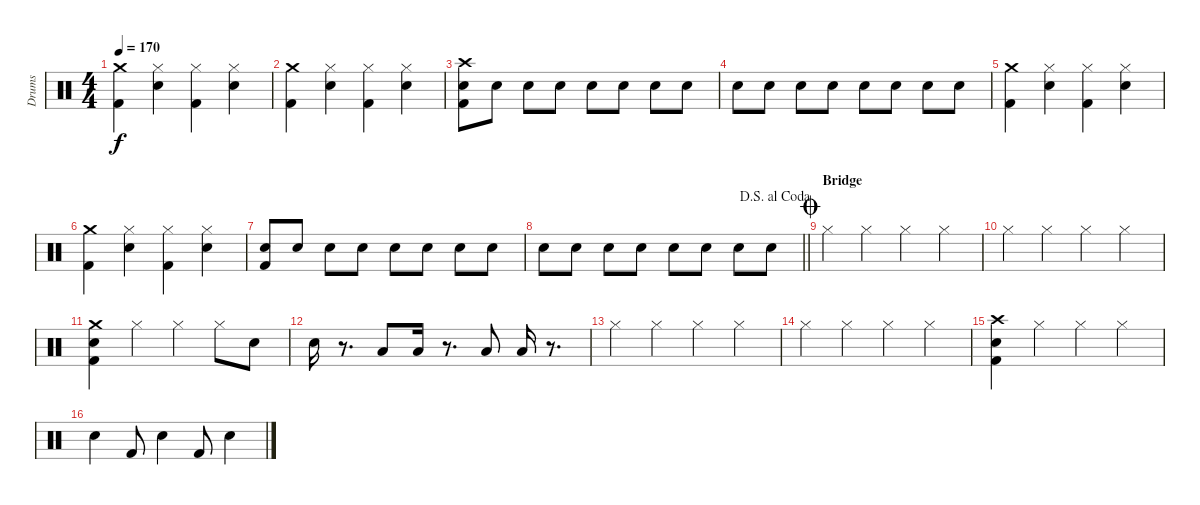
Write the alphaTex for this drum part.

\track ("Drums" "Drums") {instrument percussion}
\staff {score}
\articulation defaults
\ts (4 4)
\tempo 170
\clef neutral
\ks c
("Crash medium (hit)" "Kick (hit) 2").4{dy f} ("Hi-Hat (closed)" "Electric Snare (hit)").4 ("Hi-Hat (closed)" "Kick (hit) 2").4 ("Hi-Hat (closed)" "Electric Snare (hit)").4 |
("Crash medium (hit)" "Kick (hit) 2").4 ("Hi-Hat (closed)" "Electric Snare (hit)").4 ("Hi-Hat (closed)" "Kick (hit) 2").4 ("Hi-Hat (closed)" "Electric Snare (hit)").4 |
("Crash high (hit)" "Electric Snare (hit)" "Kick (hit) 2").8 "Electric Snare (hit)".8 "Electric Snare (hit)".8 "Electric Snare (hit)".8 "Electric Snare (hit)".8 "Electric Snare (hit)".8 "Electric Snare (hit)".8 "Electric Snare (hit)".8 |
"Electric Snare (hit)".8 "Electric Snare (hit)".8 "Electric Snare (hit)".8 "Electric Snare (hit)".8 "Electric Snare (hit)".8 "Electric Snare (hit)".8 "Electric Snare (hit)".8 "Electric Snare (hit)".8 |
("Crash medium (hit)" "Kick (hit) 2").4 ("Hi-Hat (closed)" "Electric Snare (hit)").4 ("Hi-Hat (closed)" "Kick (hit) 2").4 ("Hi-Hat (closed)" "Electric Snare (hit)").4 |
("Crash medium (hit)" "Kick (hit) 2").4 ("Hi-Hat (closed)" "Electric Snare (hit)").4 ("Hi-Hat (closed)" "Kick (hit) 2").4 ("Hi-Hat (closed)" "Electric Snare (hit)").4 |
("Electric Snare (hit)" "Kick (hit) 2").8 "Electric Snare (hit)".8 "Electric Snare (hit)".8 "Electric Snare (hit)".8 "Electric Snare (hit)".8 "Electric Snare (hit)".8 "Electric Snare (hit)".8 "Electric Snare (hit)".8 |
\jump dalsegnoalcoda
\barLineRight lightlight "Electric Snare (hit)".8 "Electric Snare (hit)".8 "Electric Snare (hit)".8 "Electric Snare (hit)".8 "Electric Snare (hit)".8 "Electric Snare (hit)".8 "Electric Snare (hit)".8 "Electric Snare (hit)".8
|
\section ("" "Bridge")
\jump coda "Hi-Hat (closed)".4 "Hi-Hat (closed)".4 "Hi-Hat (closed)".4 "Hi-Hat (closed)".4
|
"Hi-Hat (closed)".4 "Hi-Hat (closed)".4 "Hi-Hat (closed)".4 "Hi-Hat (closed)".4 |
("Crash medium (hit)" "Electric Snare (hit)" "Kick (hit) 2").4 "Hi-Hat (closed)".4 "Hi-Hat (closed)".4 "Hi-Hat (closed)".8 "Electric Snare (hit)".8 |
"Electric Snare (hit)".16 r.8{d} "Low Floor Tom (hit)".8 "Low Floor Tom (hit)".16 r.8{d} "Low Floor Tom (hit)".8 "Low Floor Tom (hit)".16 r.8{d} |
"Hi-Hat (closed)".4 "Hi-Hat (closed)".4 "Hi-Hat (closed)".4 "Hi-Hat (closed)".4 |
"Hi-Hat (closed)".4 "Hi-Hat (closed)".4 "Hi-Hat (closed)".4 "Hi-Hat (closed)".4 |
("Crash high (hit)" "Electric Snare (hit)" "Kick (hit) 2").4 "Hi-Hat (closed)".4 "Hi-Hat (closed)".4 "Hi-Hat (closed)".4 |
"Electric Snare (hit)".4 "Kick (hit) 2".8 "Electric Snare (hit)".4 "Kick (hit) 2".8 "Electric Snare (hit)".4
